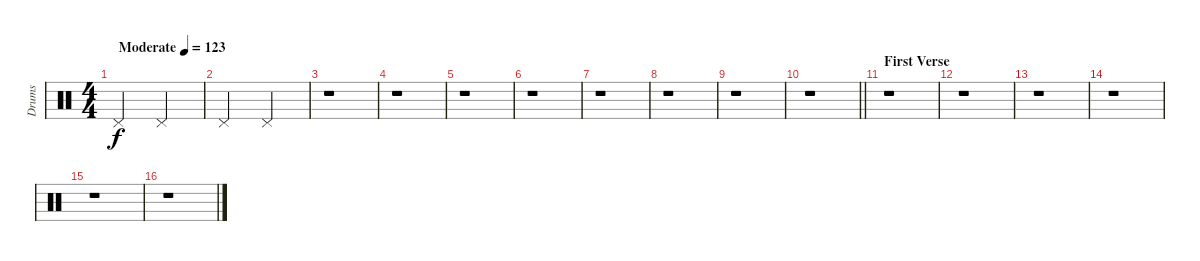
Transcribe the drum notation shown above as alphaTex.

\track ("Drums" "Drums") {instrument percussion}
\staff {score}
\articulation defaults
\ts (4 4)
\tempo (123 "Moderate")
\clef neutral
\ks c "Pedal Hi-Hat (hit)".2{dy f} "Pedal Hi-Hat (hit)".2
|
"Pedal Hi-Hat (hit)".2 "Pedal Hi-Hat (hit)".2 |
r.1 |
r.1 |
r.1 |
r.1 |
r.1 |
r.1 |
r.1 |
\barLineRight lightlight
r.1 |
\section ("" "First Verse")
r.1 |
r.1 |
r.1 |
r.1 |
r.1 |
r.1
